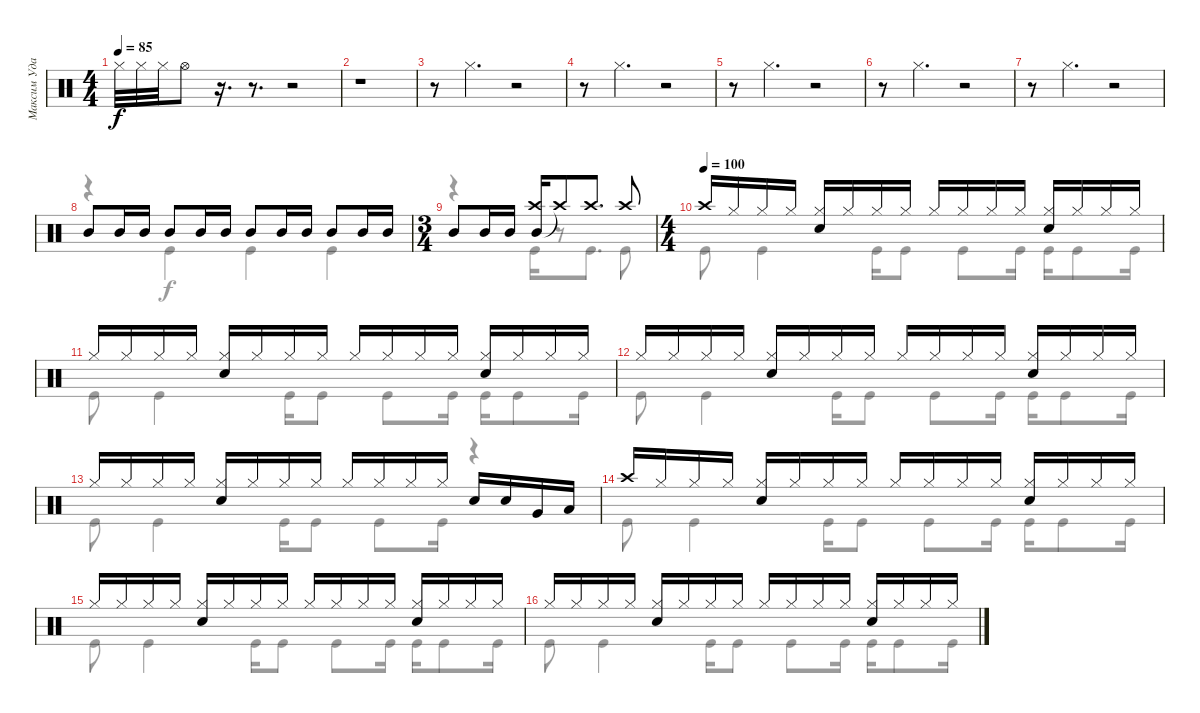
\track ("Максим Удалов" "Максим Уда") {instrument percussion}
\staff {score}
\articulation defaults
\voice
\ts (4 4)
\tempo 85
\clef neutral
\ks c "Hi-Hat (closed)".32{dy f} "Hi-Hat (closed)".32 "Hi-Hat (closed)".32 "Hi-Hat (open)".8
r.16{d} r.8{d} r.2 |
r.1 |
r.8 "Hi-Hat (closed)".4{d} r.2 |
r.8 "Hi-Hat (closed)".4{d} r.2 |
r.8 "Hi-Hat (closed)".4{d} r.2 |
r.8 "Hi-Hat (closed)".4{d} r.2 |
r.8 "Hi-Hat (closed)".4{d} r.2 |
"Mid Tom (hit)".8 "Mid Tom (hit)".16 "Mid Tom (hit)".16 "Mid Tom (hit)".8 "Mid Tom (hit)".16 "Mid Tom (hit)".16 "Mid Tom (hit)".8 "Mid Tom (hit)".16 "Mid Tom (hit)".16 "Mid Tom (hit)".8 "Mid Tom (hit)".16 "Mid Tom (hit)".16 |
\ts (3 4)
"Mid Tom (hit)".8 "Mid Tom (hit)".16 "Mid Tom (hit)".16 ("Mid Tom (hit)" "Crash high (hit)").16 "Crash high (hit)"{t}.8 "Crash high (hit)".8{d} "Crash high (hit)".8 |
\ts (4 4)
\tempo (100)
"Crash high (hit)".16 "Hi-Hat (closed)".16 "Hi-Hat (closed)".16 "Hi-Hat (closed)".16 ("Hi-Hat (closed)" "Snare (hit) 2").16 "Hi-Hat (closed)".16 "Hi-Hat (closed)".16 "Hi-Hat (closed)".16 "Hi-Hat (closed)".16 "Hi-Hat (closed)".16 "Hi-Hat (closed)".16 "Hi-Hat (closed)".16 ("Hi-Hat (closed)" "Snare (hit) 2").16 "Hi-Hat (closed)".16 "Hi-Hat (closed)".16 "Hi-Hat (closed)".16 |
"Hi-Hat (closed)".16 "Hi-Hat (closed)".16 "Hi-Hat (closed)".16 "Hi-Hat (closed)".16 ("Hi-Hat (closed)" "Snare (hit) 2").16 "Hi-Hat (closed)".16 "Hi-Hat (closed)".16 "Hi-Hat (closed)".16 "Hi-Hat (closed)".16 "Hi-Hat (closed)".16 "Hi-Hat (closed)".16 "Hi-Hat (closed)".16 ("Hi-Hat (closed)" "Snare (hit) 2").16 "Hi-Hat (closed)".16 "Hi-Hat (closed)".16 "Hi-Hat (closed)".16 |
"Hi-Hat (closed)".16 "Hi-Hat (closed)".16 "Hi-Hat (closed)".16 "Hi-Hat (closed)".16 ("Hi-Hat (closed)" "Snare (hit) 2").16 "Hi-Hat (closed)".16 "Hi-Hat (closed)".16 "Hi-Hat (closed)".16 "Hi-Hat (closed)".16 "Hi-Hat (closed)".16 "Hi-Hat (closed)".16 "Hi-Hat (closed)".16 ("Hi-Hat (closed)" "Snare (hit) 2").16 "Hi-Hat (closed)".16 "Hi-Hat (closed)".16 "Hi-Hat (closed)".16 |
"Hi-Hat (closed)".16 "Hi-Hat (closed)".16 "Hi-Hat (closed)".16 "Hi-Hat (closed)".16 ("Hi-Hat (closed)" "Snare (hit) 2").16 "Hi-Hat (closed)".16 "Hi-Hat (closed)".16 "Hi-Hat (closed)".16 "Hi-Hat (closed)".16 "Hi-Hat (closed)".16 "Hi-Hat (closed)".16 "Hi-Hat (closed)".16 "Snare (hit) 2".16 "Snare (hit) 2".16 "Very Low Tom (hit)".16 "Low Tom (hit)".16 |
"Crash high (hit)".16 "Hi-Hat (closed)".16 "Hi-Hat (closed)".16 "Hi-Hat (closed)".16 ("Hi-Hat (closed)" "Snare (hit) 2").16 "Hi-Hat (closed)".16 "Hi-Hat (closed)".16 "Hi-Hat (closed)".16 "Hi-Hat (closed)".16 "Hi-Hat (closed)".16 "Hi-Hat (closed)".16 "Hi-Hat (closed)".16 ("Hi-Hat (closed)" "Snare (hit) 2").16 "Hi-Hat (closed)".16 "Hi-Hat (closed)".16 "Hi-Hat (closed)".16 |
"Hi-Hat (closed)".16 "Hi-Hat (closed)".16 "Hi-Hat (closed)".16 "Hi-Hat (closed)".16 ("Hi-Hat (closed)" "Snare (hit) 2").16 "Hi-Hat (closed)".16 "Hi-Hat (closed)".16 "Hi-Hat (closed)".16 "Hi-Hat (closed)".16 "Hi-Hat (closed)".16 "Hi-Hat (closed)".16 "Hi-Hat (closed)".16 ("Hi-Hat (closed)" "Snare (hit) 2").16 "Hi-Hat (closed)".16 "Hi-Hat (closed)".16 "Hi-Hat (closed)".16 |
"Hi-Hat (closed)".16 "Hi-Hat (closed)".16 "Hi-Hat (closed)".16 "Hi-Hat (closed)".16 ("Hi-Hat (closed)" "Snare (hit) 2").16 "Hi-Hat (closed)".16 "Hi-Hat (closed)".16 "Hi-Hat (closed)".16 "Hi-Hat (closed)".16 "Hi-Hat (closed)".16 "Hi-Hat (closed)".16 "Hi-Hat (closed)".16 ("Hi-Hat (closed)" "Snare (hit) 2").16 "Hi-Hat (closed)".16 "Hi-Hat (closed)".16 "Hi-Hat (closed)".16
\voice
\clef neutral
\ottava regular
\simile none
\ks c
|
|
|
|
|
|
|
r.4 "Kick (hit)".4 "Kick (hit)".4 "Kick (hit)".4 |
r.4 "Kick (hit)".16 r.8 "Kick (hit)".8{d} "Kick (hit)".8 |
"Kick (hit)".8 "Kick (hit)".4 "Kick (hit)".16 "Kick (hit)".8 "Kick (hit)".8 "Kick (hit)".16 "Kick (hit)".16 "Kick (hit)".8 "Kick (hit)".16 |
"Kick (hit)".8 "Kick (hit)".4 "Kick (hit)".16 "Kick (hit)".8 "Kick (hit)".8 "Kick (hit)".16 "Kick (hit)".16 "Kick (hit)".8 "Kick (hit)".16 |
"Kick (hit)".8 "Kick (hit)".4 "Kick (hit)".16 "Kick (hit)".8 "Kick (hit)".8 "Kick (hit)".16 "Kick (hit)".16 "Kick (hit)".8 "Kick (hit)".16 |
"Kick (hit)".8 "Kick (hit)".4 "Kick (hit)".16 "Kick (hit)".8 "Kick (hit)".8 "Kick (hit)".16 r.4 |
"Kick (hit)".8 "Kick (hit)".4 "Kick (hit)".16 "Kick (hit)".8 "Kick (hit)".8 "Kick (hit)".16 "Kick (hit)".16 "Kick (hit)".8 "Kick (hit)".16 |
"Kick (hit)".8 "Kick (hit)".4 "Kick (hit)".16 "Kick (hit)".8 "Kick (hit)".8 "Kick (hit)".16 "Kick (hit)".16 "Kick (hit)".8 "Kick (hit)".16 |
"Kick (hit)".8 "Kick (hit)".4 "Kick (hit)".16 "Kick (hit)".8 "Kick (hit)".8 "Kick (hit)".16 "Kick (hit)".16 "Kick (hit)".8 "Kick (hit)".16
